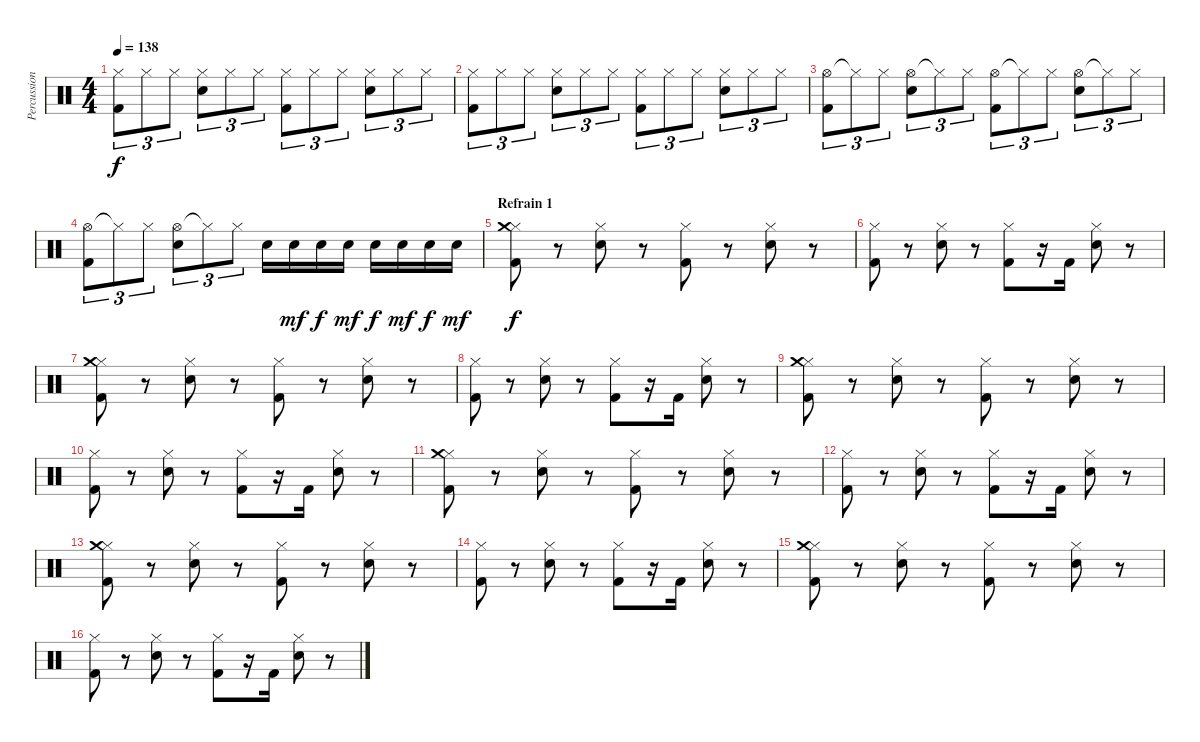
\track ("Percussions" "Percussion") {instrument percussion}
\staff {score}
\articulation defaults
\ts (4 4)
\tempo 138
\clef neutral
\ks c
("Hi-Hat (closed)" "Kick (hit) 2").8{tu (3 2) dy f} "Hi-Hat (closed)".8{tu (3 2)} "Hi-Hat (closed)".8{tu (3 2)} ("Hi-Hat (closed)" "Electric Snare (hit)").8{tu (3 2)} "Hi-Hat (closed)".8{tu (3 2)} "Hi-Hat (closed)".8{tu (3 2)} ("Hi-Hat (closed)" "Kick (hit) 2").8{tu (3 2)} "Hi-Hat (closed)".8{tu (3 2)} "Hi-Hat (closed)".8{tu (3 2)} ("Hi-Hat (closed)" "Electric Snare (hit)").8{tu (3 2)} "Hi-Hat (closed)".8{tu (3 2)} "Hi-Hat (closed)".8{tu (3 2)} |
("Hi-Hat (closed)" "Kick (hit) 2").8{tu (3 2)} "Hi-Hat (closed)".8{tu (3 2)} "Hi-Hat (closed)".8{tu (3 2)} ("Hi-Hat (closed)" "Electric Snare (hit)").8{tu (3 2)} "Hi-Hat (closed)".8{tu (3 2)} "Hi-Hat (closed)".8{tu (3 2)} ("Hi-Hat (closed)" "Kick (hit) 2").8{tu (3 2)} "Hi-Hat (closed)".8{tu (3 2)} "Hi-Hat (closed)".8{tu (3 2)} ("Hi-Hat (closed)" "Electric Snare (hit)").8{tu (3 2)} "Hi-Hat (closed)".8{tu (3 2)} "Hi-Hat (closed)".8{tu (3 2)} |
("Hi-Hat (open)" "Kick (hit) 2").8{tu (3 2)} "Hi-Hat (closed)"{t}.8{tu (3 2)} "Hi-Hat (closed)".8{tu (3 2)} ("Hi-Hat (open)" "Electric Snare (hit)").8{tu (3 2)} "Hi-Hat (closed)"{t}.8{tu (3 2)} "Hi-Hat (closed)".8{tu (3 2)} ("Hi-Hat (open)" "Kick (hit) 2").8{tu (3 2)} "Hi-Hat (closed)"{t}.8{tu (3 2)} "Hi-Hat (closed)".8{tu (3 2)} ("Hi-Hat (open)" "Electric Snare (hit)").8{tu (3 2)} "Hi-Hat (closed)"{t}.8{tu (3 2)} "Hi-Hat (closed)".8{tu (3 2)} |
("Hi-Hat (open)" "Kick (hit) 2").8{tu (3 2)} "Hi-Hat (closed)"{t}.8{tu (3 2)} "Hi-Hat (closed)".8{tu (3 2)} ("Hi-Hat (open)" "Electric Snare (hit)").8{tu (3 2)} "Hi-Hat (closed)"{t}.8{tu (3 2)} "Hi-Hat (closed)".8{tu (3 2)} "Electric Snare (hit)".16 "Electric Snare (hit)".16{dy mf} "Electric Snare (hit)".16{dy f} "Electric Snare (hit)".16{dy mf} "Electric Snare (hit)".16{dy f} "Electric Snare (hit)".16{dy mf} "Electric Snare (hit)".16{dy f} "Electric Snare (hit)".16{dy mf} |
\section ("" "Refrain 1")
("Hi-Hat (closed)" "Crash medium (hit)" "Kick (hit) 2").8{dy f} r.8 ("Hi-Hat (closed)" "Electric Snare (hit)").8 r.8 ("Hi-Hat (closed)" "Kick (hit) 2").8 r.8 ("Hi-Hat (closed)" "Electric Snare (hit)").8 r.8 |
("Hi-Hat (closed)" "Kick (hit) 2").8 r.8 ("Hi-Hat (closed)" "Electric Snare (hit)").8 r.8 ("Hi-Hat (closed)" "Kick (hit) 2").8 r.16 "Kick (hit) 2".16 ("Hi-Hat (closed)" "Electric Snare (hit)").8 r.8 |
("Hi-Hat (closed)" "Crash medium (hit)" "Kick (hit) 2").8 r.8 ("Hi-Hat (closed)" "Electric Snare (hit)").8 r.8 ("Hi-Hat (closed)" "Kick (hit) 2").8 r.8 ("Hi-Hat (closed)" "Electric Snare (hit)").8 r.8 |
("Hi-Hat (closed)" "Kick (hit) 2").8 r.8 ("Hi-Hat (closed)" "Electric Snare (hit)").8 r.8 ("Hi-Hat (closed)" "Kick (hit) 2").8 r.16 "Kick (hit) 2".16 ("Hi-Hat (closed)" "Electric Snare (hit)").8 r.8 |
("Hi-Hat (closed)" "Crash medium (hit)" "Kick (hit) 2").8 r.8 ("Hi-Hat (closed)" "Electric Snare (hit)").8 r.8 ("Hi-Hat (closed)" "Kick (hit) 2").8 r.8 ("Hi-Hat (closed)" "Electric Snare (hit)").8 r.8 |
("Hi-Hat (closed)" "Kick (hit) 2").8 r.8 ("Hi-Hat (closed)" "Electric Snare (hit)").8 r.8 ("Hi-Hat (closed)" "Kick (hit) 2").8 r.16 "Kick (hit) 2".16 ("Hi-Hat (closed)" "Electric Snare (hit)").8 r.8 |
("Hi-Hat (closed)" "Crash medium (hit)" "Kick (hit) 2").8 r.8 ("Hi-Hat (closed)" "Electric Snare (hit)").8 r.8 ("Hi-Hat (closed)" "Kick (hit) 2").8 r.8 ("Hi-Hat (closed)" "Electric Snare (hit)").8 r.8 |
("Hi-Hat (closed)" "Kick (hit) 2").8 r.8 ("Hi-Hat (closed)" "Electric Snare (hit)").8 r.8 ("Hi-Hat (closed)" "Kick (hit) 2").8 r.16 "Kick (hit) 2".16 ("Hi-Hat (closed)" "Electric Snare (hit)").8 r.8 |
("Hi-Hat (closed)" "Crash medium (hit)" "Kick (hit) 2").8 r.8 ("Hi-Hat (closed)" "Electric Snare (hit)").8 r.8 ("Hi-Hat (closed)" "Kick (hit) 2").8 r.8 ("Hi-Hat (closed)" "Electric Snare (hit)").8 r.8 |
("Hi-Hat (closed)" "Kick (hit) 2").8 r.8 ("Hi-Hat (closed)" "Electric Snare (hit)").8 r.8 ("Hi-Hat (closed)" "Kick (hit) 2").8 r.16 "Kick (hit) 2".16 ("Hi-Hat (closed)" "Electric Snare (hit)").8 r.8 |
("Hi-Hat (closed)" "Crash medium (hit)" "Kick (hit) 2").8 r.8 ("Hi-Hat (closed)" "Electric Snare (hit)").8 r.8 ("Hi-Hat (closed)" "Kick (hit) 2").8 r.8 ("Hi-Hat (closed)" "Electric Snare (hit)").8 r.8 |
("Hi-Hat (closed)" "Kick (hit) 2").8 r.8 ("Hi-Hat (closed)" "Electric Snare (hit)").8 r.8 ("Hi-Hat (closed)" "Kick (hit) 2").8 r.16 "Kick (hit) 2".16 ("Hi-Hat (closed)" "Electric Snare (hit)").8 r.8
